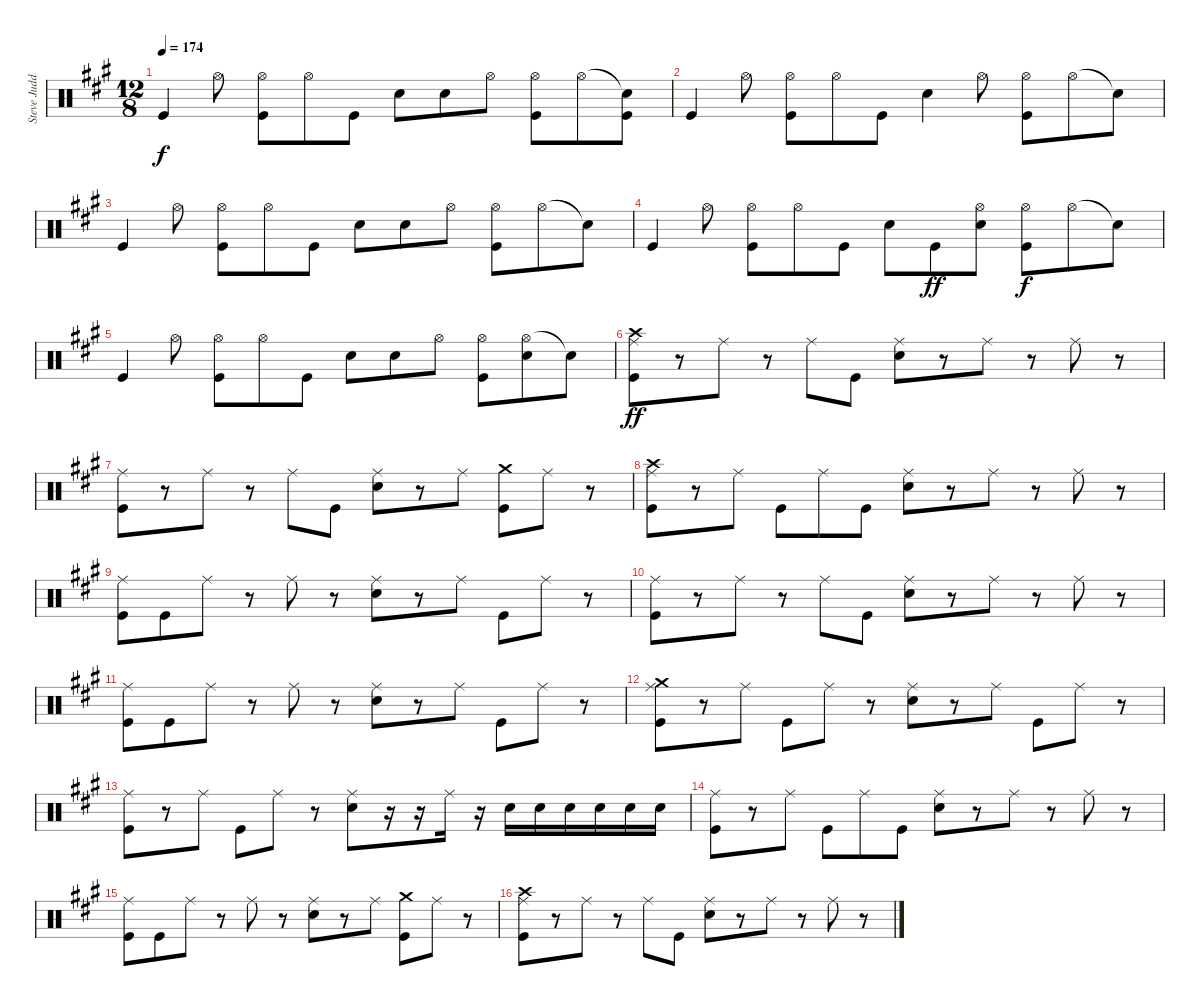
\track ("Steve Judd (Drums)" "Steve Judd") {instrument percussion}
\staff {score}
\articulation defaults
\ts (12 8)
\tempo 174
\clef neutral
\ks a "Kick (hit)".4{dy f} "Hi-Hat (open)".8
("Hi-Hat (open)" "Kick (hit)").8 "Hi-Hat (open)".8 "Kick (hit)".8 "Snare (hit) 2".8 "Snare (hit) 2".8 "Hi-Hat (open)".8 ("Hi-Hat (open)" "Kick (hit)").8 "Hi-Hat (open)".8 ("Snare (hit)"{t} "Kick (hit)").8 |
"Kick (hit)".4 "Hi-Hat (open)".8 ("Hi-Hat (open)" "Kick (hit)").8 "Hi-Hat (open)".8 "Kick (hit)".8 "Snare (hit) 2".4 "Hi-Hat (open)".8 ("Hi-Hat (open)" "Kick (hit)").8 "Hi-Hat (open)".8 "Snare (hit)"{t}.8 |
"Kick (hit)".4 "Hi-Hat (open)".8 ("Hi-Hat (open)" "Kick (hit)").8 "Hi-Hat (open)".8 "Kick (hit)".8 "Snare (hit) 2".8 "Snare (hit) 2".8 "Hi-Hat (open)".8 ("Hi-Hat (open)" "Kick (hit)").8 "Hi-Hat (open)".8 "Snare (hit)"{t}.8 |
"Kick (hit)".4 "Hi-Hat (open)".8 ("Hi-Hat (open)" "Kick (hit)").8 "Hi-Hat (open)".8 "Kick (hit)".8 "Snare (hit) 2".8 "Kick (hit)".8{dy ff} ("Hi-Hat (open)" "Snare (hit) 2").8 ("Hi-Hat (open)" "Kick (hit)").8{dy f} "Hi-Hat (open)".8 "Snare (hit)"{t}.8 |
"Kick (hit)".4 "Hi-Hat (open)".8 ("Hi-Hat (open)" "Kick (hit)").8 "Hi-Hat (open)".8 "Kick (hit)".8 "Snare (hit) 2".8 "Snare (hit) 2".8 "Hi-Hat (open)".8 ("Hi-Hat (open)" "Kick (hit)").8 ("Hi-Hat (open)" "Snare (hit) 2").8 "Snare (hit)"{t}.8 |
("Crash high (hit)" "Ride (middle)" "Kick (hit)").8{dy ff} r.8 "Ride (middle)".8 r.8 "Ride (middle)".8 "Kick (hit)".8 ("Ride (middle)" "Snare (hit) 2").8 r.8 "Ride (middle)".8 r.8 "Ride (middle)".8 r.8 |
("Ride (middle)" "Kick (hit)").8 r.8 "Ride (middle)".8 r.8 "Ride (middle)".8 "Kick (hit)".8 ("Ride (middle)" "Snare (hit) 2").8 r.8 "Ride (middle)".8 ("Crash medium (hit)" "Kick (hit)").8 "Ride (middle)".8 r.8 |
("Crash high (hit)" "Ride (middle)" "Kick (hit)").8 r.8 "Ride (middle)".8 "Kick (hit)".8 "Ride (middle)".8 "Kick (hit)".8 ("Ride (middle)" "Snare (hit) 2").8 r.8 "Ride (middle)".8 r.8 "Ride (middle)".8 r.8 |
("Ride (middle)" "Kick (hit)").8 "Kick (hit)".8 "Ride (middle)".8 r.8 "Ride (middle)".8 r.8 ("Ride (middle)" "Snare (hit) 2").8 r.8 "Ride (middle)".8 "Kick (hit)".8 "Ride (middle)".8 r.8 |
("Ride (middle)" "Kick (hit)").8 r.8 "Ride (middle)".8 r.8 "Ride (middle)".8 "Kick (hit)".8 ("Ride (middle)" "Snare (hit) 2").8 r.8 "Ride (middle)".8 r.8 "Ride (middle)".8 r.8 |
("Ride (middle)" "Kick (hit)").8 "Kick (hit)".8 "Ride (middle)".8 r.8 "Ride (middle)".8 r.8 ("Ride (middle)" "Snare (hit) 2").8 r.8 "Ride (middle)".8 "Kick (hit)".8 "Ride (middle)".8 r.8 |
("Crash medium (hit)" "Ride (middle)" "Kick (hit)").8 r.8 "Ride (middle)".8 "Kick (hit)".8 "Ride (middle)".8 r.8 ("Ride (middle)" "Snare (hit) 2").8 r.8 "Ride (middle)".8 "Kick (hit)".8 "Ride (middle)".8 r.8 |
("Ride (middle)" "Kick (hit)").8 r.8 "Ride (middle)".8 "Kick (hit)".8 "Ride (middle)".8 r.8 ("Ride (middle)" "Snare (hit) 2").8 r.16 r.16 "Ride (middle)".16 r.16 "Snare (hit) 2".16 "Snare (hit) 2".16 "Snare (hit) 2".16 "Snare (hit) 2".16 "Snare (hit) 2".16 "Snare (hit) 2".16 |
("Ride (middle)" "Kick (hit)").8 r.8 "Ride (middle)".8 "Kick (hit)".8 "Ride (middle)".8 "Kick (hit)".8 ("Ride (middle)" "Snare (hit) 2").8 r.8 "Ride (middle)".8 r.8 "Ride (middle)".8 r.8 |
("Ride (middle)" "Kick (hit)").8 "Kick (hit)".8 "Ride (middle)".8 r.8 "Ride (middle)".8 r.8 ("Ride (middle)" "Snare (hit) 2").8 r.8 "Ride (middle)".8 ("Crash medium (hit)" "Kick (hit)").8 "Ride (middle)".8 r.8 |
("Crash high (hit)" "Ride (middle)" "Kick (hit)").8 r.8 "Ride (middle)".8 r.8 "Ride (middle)".8 "Kick (hit)".8 ("Ride (middle)" "Snare (hit) 2").8 r.8 "Ride (middle)".8 r.8 "Ride (middle)".8 r.8
